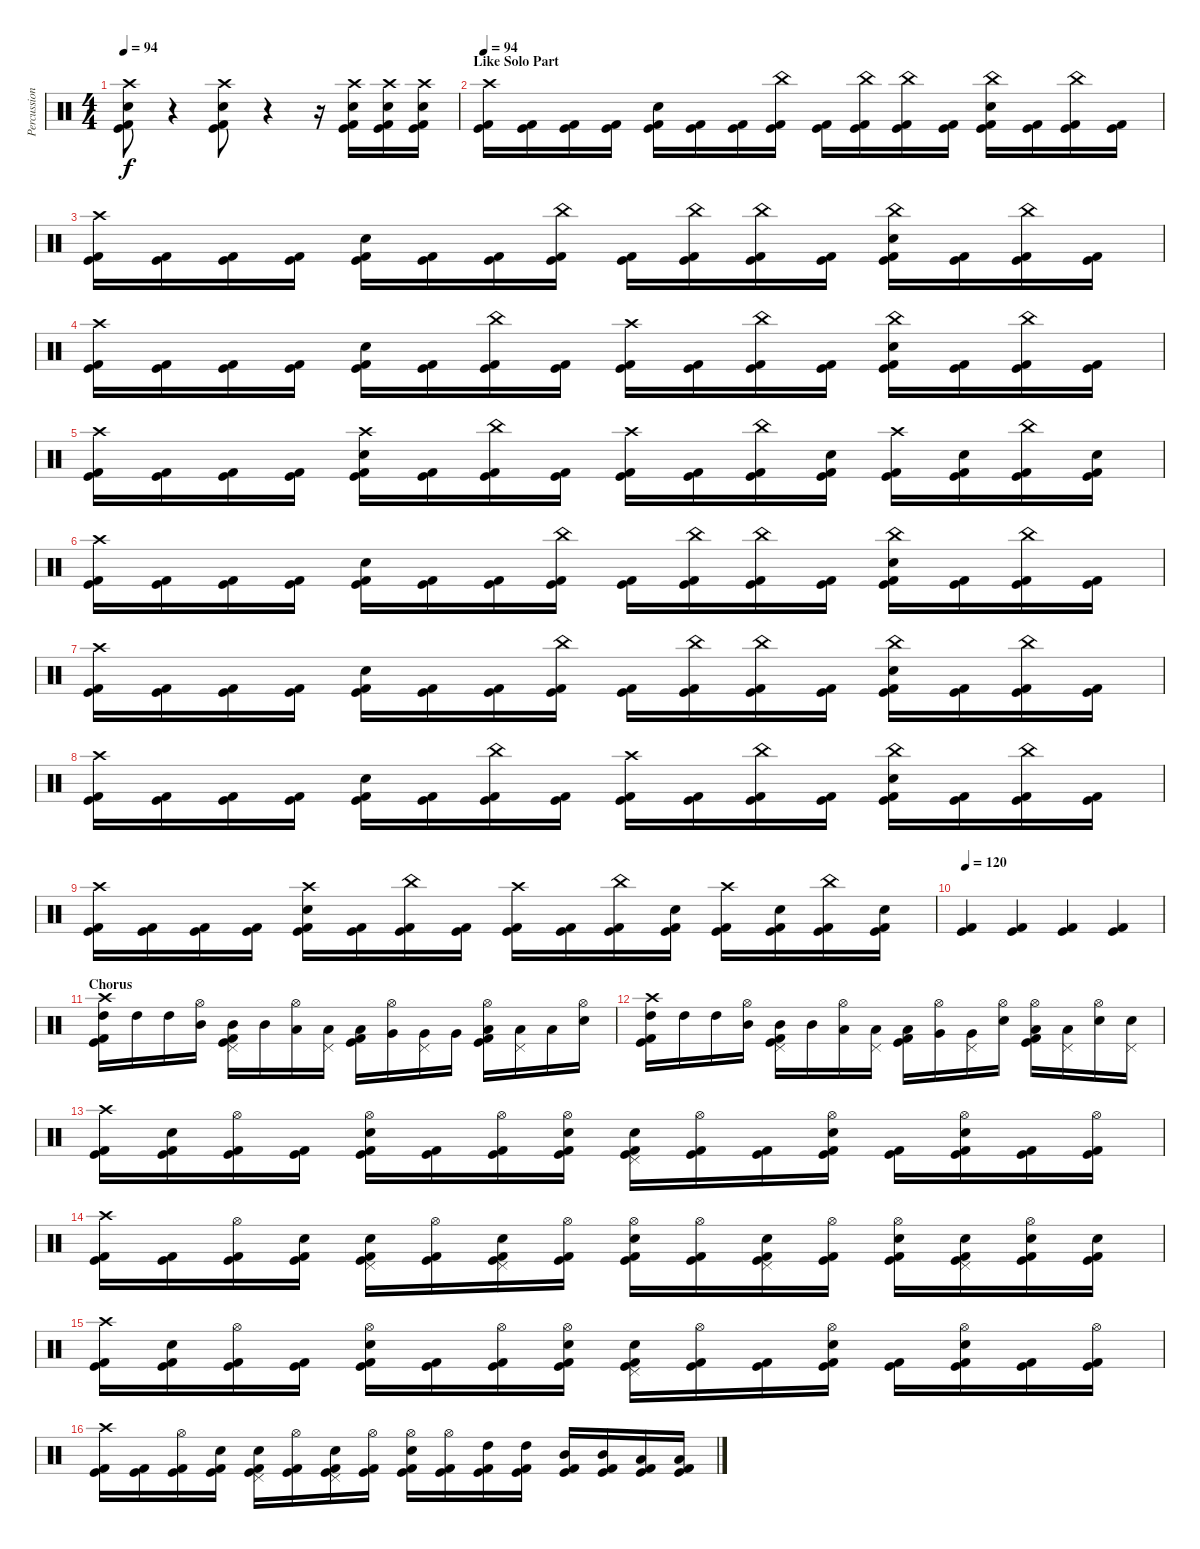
\track ("Percussion" "Percussion") {instrument percussion}
\staff {score}
\articulation defaults
\ts (4 4)
\tempo 94
\clef neutral
\ks c
("Crash high (hit)" "Snare (hit) 2" "Kick (hit) 2" "Kick (hit)").8{dy f} r.4 ("Crash high (hit)" "Snare (hit) 2" "Kick (hit) 2" "Kick (hit)").8 r.4 r.16 ("Crash high (hit)" "Snare (hit) 2" "Kick (hit) 2" "Kick (hit)").16 ("Crash high (hit)" "Snare (hit) 2" "Kick (hit) 2" "Kick (hit)").16 ("Crash high (hit)" "Snare (hit) 2" "Kick (hit) 2" "Kick (hit)").16 |
\section ("" "Like Solo Part")
\tempo 94
("Crash high (hit)" "Kick (hit) 2" "Kick (hit)").16 ("Kick (hit) 2" "Kick (hit)").16 ("Kick (hit) 2" "Kick (hit)").16 ("Kick (hit) 2" "Kick (hit)").16 ("Snare (hit) 2" "Kick (hit) 2" "Kick (hit)").16 ("Kick (hit) 2" "Kick (hit)").16 ("Kick (hit) 2" "Kick (hit)").16 ("China (hit)" "Kick (hit) 2" "Kick (hit)").16 ("Kick (hit) 2" "Kick (hit)").16 ("China (hit)" "Kick (hit) 2" "Kick (hit)").16 ("China (hit)" "Kick (hit) 2" "Kick (hit)").16 ("Kick (hit) 2" "Kick (hit)").16 ("China (hit)" "Snare (hit) 2" "Kick (hit) 2" "Kick (hit)").16 ("Kick (hit) 2" "Kick (hit)").16 ("China (hit)" "Kick (hit) 2" "Kick (hit)").16 ("Kick (hit) 2" "Kick (hit)").16 |
("Crash high (hit)" "Kick (hit) 2" "Kick (hit)").16 ("Kick (hit) 2" "Kick (hit)").16 ("Kick (hit) 2" "Kick (hit)").16 ("Kick (hit) 2" "Kick (hit)").16 ("Snare (hit) 2" "Kick (hit) 2" "Kick (hit)").16 ("Kick (hit) 2" "Kick (hit)").16 ("Kick (hit) 2" "Kick (hit)").16 ("China (hit)" "Kick (hit) 2" "Kick (hit)").16 ("Kick (hit) 2" "Kick (hit)").16 ("China (hit)" "Kick (hit) 2" "Kick (hit)").16 ("China (hit)" "Kick (hit) 2" "Kick (hit)").16 ("Kick (hit) 2" "Kick (hit)").16 ("China (hit)" "Snare (hit) 2" "Kick (hit) 2" "Kick (hit)").16 ("Kick (hit) 2" "Kick (hit)").16 ("China (hit)" "Kick (hit) 2" "Kick (hit)").16 ("Kick (hit) 2" "Kick (hit)").16 |
("Crash high (hit)" "Kick (hit) 2" "Kick (hit)").16 ("Kick (hit) 2" "Kick (hit)").16 ("Kick (hit) 2" "Kick (hit)").16 ("Kick (hit) 2" "Kick (hit)").16 ("Snare (hit) 2" "Kick (hit) 2" "Kick (hit)").16 ("Kick (hit) 2" "Kick (hit)").16 ("China (hit)" "Kick (hit) 2" "Kick (hit)").16 ("Kick (hit) 2" "Kick (hit)").16 ("Crash high (hit)" "Kick (hit) 2" "Kick (hit)").16 ("Kick (hit) 2" "Kick (hit)").16 ("China (hit)" "Kick (hit) 2" "Kick (hit)").16 ("Kick (hit) 2" "Kick (hit)").16 ("China (hit)" "Snare (hit) 2" "Kick (hit) 2" "Kick (hit)").16 ("Kick (hit) 2" "Kick (hit)").16 ("China (hit)" "Kick (hit) 2" "Kick (hit)").16 ("Kick (hit) 2" "Kick (hit)").16 |
("Crash high (hit)" "Kick (hit) 2" "Kick (hit)").16 ("Kick (hit) 2" "Kick (hit)").16 ("Kick (hit) 2" "Kick (hit)").16 ("Kick (hit) 2" "Kick (hit)").16 ("Crash high (hit)" "Snare (hit) 2" "Kick (hit) 2" "Kick (hit)").16 ("Kick (hit) 2" "Kick (hit)").16 ("China (hit)" "Kick (hit) 2" "Kick (hit)").16 ("Kick (hit) 2" "Kick (hit)").16 ("Crash high (hit)" "Kick (hit) 2" "Kick (hit)").16 ("Kick (hit) 2" "Kick (hit)").16 ("China (hit)" "Kick (hit) 2" "Kick (hit)").16 ("Snare (hit) 2" "Kick (hit) 2" "Kick (hit)").16 ("Crash high (hit)" "Kick (hit) 2" "Kick (hit)").16 ("Snare (hit) 2" "Kick (hit) 2" "Kick (hit)").16 ("China (hit)" "Kick (hit) 2" "Kick (hit)").16 ("Snare (hit) 2" "Kick (hit) 2" "Kick (hit)").16 |
("Crash high (hit)" "Kick (hit) 2" "Kick (hit)").16 ("Kick (hit) 2" "Kick (hit)").16 ("Kick (hit) 2" "Kick (hit)").16 ("Kick (hit) 2" "Kick (hit)").16 ("Snare (hit) 2" "Kick (hit) 2" "Kick (hit)").16 ("Kick (hit) 2" "Kick (hit)").16 ("Kick (hit) 2" "Kick (hit)").16 ("China (hit)" "Kick (hit) 2" "Kick (hit)").16 ("Kick (hit) 2" "Kick (hit)").16 ("China (hit)" "Kick (hit) 2" "Kick (hit)").16 ("China (hit)" "Kick (hit) 2" "Kick (hit)").16 ("Kick (hit) 2" "Kick (hit)").16 ("China (hit)" "Snare (hit) 2" "Kick (hit) 2" "Kick (hit)").16 ("Kick (hit) 2" "Kick (hit)").16 ("China (hit)" "Kick (hit) 2" "Kick (hit)").16 ("Kick (hit) 2" "Kick (hit)").16 |
("Crash high (hit)" "Kick (hit) 2" "Kick (hit)").16 ("Kick (hit) 2" "Kick (hit)").16 ("Kick (hit) 2" "Kick (hit)").16 ("Kick (hit) 2" "Kick (hit)").16 ("Snare (hit) 2" "Kick (hit) 2" "Kick (hit)").16 ("Kick (hit) 2" "Kick (hit)").16 ("Kick (hit) 2" "Kick (hit)").16 ("China (hit)" "Kick (hit) 2" "Kick (hit)").16 ("Kick (hit) 2" "Kick (hit)").16 ("China (hit)" "Kick (hit) 2" "Kick (hit)").16 ("China (hit)" "Kick (hit) 2" "Kick (hit)").16 ("Kick (hit) 2" "Kick (hit)").16 ("China (hit)" "Snare (hit) 2" "Kick (hit) 2" "Kick (hit)").16 ("Kick (hit) 2" "Kick (hit)").16 ("China (hit)" "Kick (hit) 2" "Kick (hit)").16 ("Kick (hit) 2" "Kick (hit)").16 |
("Crash high (hit)" "Kick (hit) 2" "Kick (hit)").16 ("Kick (hit) 2" "Kick (hit)").16 ("Kick (hit) 2" "Kick (hit)").16 ("Kick (hit) 2" "Kick (hit)").16 ("Snare (hit) 2" "Kick (hit) 2" "Kick (hit)").16 ("Kick (hit) 2" "Kick (hit)").16 ("China (hit)" "Kick (hit) 2" "Kick (hit)").16 ("Kick (hit) 2" "Kick (hit)").16 ("Crash high (hit)" "Kick (hit) 2" "Kick (hit)").16 ("Kick (hit) 2" "Kick (hit)").16 ("China (hit)" "Kick (hit) 2" "Kick (hit)").16 ("Kick (hit) 2" "Kick (hit)").16 ("China (hit)" "Snare (hit) 2" "Kick (hit) 2" "Kick (hit)").16 ("Kick (hit) 2" "Kick (hit)").16 ("China (hit)" "Kick (hit) 2" "Kick (hit)").16 ("Kick (hit) 2" "Kick (hit)").16 |
("Crash high (hit)" "Kick (hit) 2" "Kick (hit)").16 ("Kick (hit) 2" "Kick (hit)").16 ("Kick (hit) 2" "Kick (hit)").16 ("Kick (hit) 2" "Kick (hit)").16 ("Crash high (hit)" "Snare (hit) 2" "Kick (hit) 2" "Kick (hit)").16 ("Kick (hit) 2" "Kick (hit)").16 ("China (hit)" "Kick (hit) 2" "Kick (hit)").16 ("Kick (hit) 2" "Kick (hit)").16 ("Crash high (hit)" "Kick (hit) 2" "Kick (hit)").16 ("Kick (hit) 2" "Kick (hit)").16 ("China (hit)" "Kick (hit) 2" "Kick (hit)").16 ("Snare (hit) 2" "Kick (hit) 2" "Kick (hit)").16 ("Crash high (hit)" "Kick (hit) 2" "Kick (hit)").16 ("Snare (hit) 2" "Kick (hit) 2" "Kick (hit)").16 ("China (hit)" "Kick (hit) 2" "Kick (hit)").16 ("Snare (hit) 2" "Kick (hit) 2" "Kick (hit)").16 |
\tempo 120
("Kick (hit) 2" "Kick (hit)").4 ("Kick (hit) 2" "Kick (hit)").4 ("Kick (hit) 2" "Kick (hit)").4 ("Kick (hit) 2" "Kick (hit)").4 |
\section ("" "Chorus")
("Crash high (hit)" "High Tom (hit)" "Kick (hit) 2" "Kick (hit)").16 "High Tom (hit)".16 "High Tom (hit)".16 ("Hi-Hat (open)" "Mid Tom (hit)").16 ("Pedal Hi-Hat (hit)" "Mid Tom (hit)" "Kick (hit) 2" "Kick (hit)").16 "Mid Tom (hit)".16 ("Hi-Hat (open)" "Low Tom (hit)").16 ("Pedal Hi-Hat (hit)" "Low Tom (hit)").16 ("Low Tom (hit)" "Kick (hit) 2" "Kick (hit)").16 ("Hi-Hat (open)" "Very Low Tom (hit)").16 ("Pedal Hi-Hat (hit)" "Very Low Tom (hit)").16 "Very Low Tom (hit)".16 ("Hi-Hat (open)" "Low Floor Tom (hit)" "Kick (hit) 2" "Kick (hit)").16 ("Pedal Hi-Hat (hit)" "Low Floor Tom (hit)").16 "Low Floor Tom (hit)".16 ("Hi-Hat (open)" "Electric Snare (hit)").16 |
("Crash high (hit)" "High Tom (hit)" "Kick (hit) 2" "Kick (hit)").16 "High Tom (hit)".16 "High Tom (hit)".16 ("Hi-Hat (open)" "Mid Tom (hit)").16 ("Pedal Hi-Hat (hit)" "Mid Tom (hit)" "Kick (hit) 2" "Kick (hit)").16 "Mid Tom (hit)".16 ("Hi-Hat (open)" "Low Tom (hit)").16 ("Pedal Hi-Hat (hit)" "Low Tom (hit)").16 ("Low Tom (hit)" "Kick (hit) 2" "Kick (hit)").16 ("Hi-Hat (open)" "Very Low Tom (hit)").16 ("Pedal Hi-Hat (hit)" "Very Low Tom (hit)").16 ("Hi-Hat (open)" "Electric Snare (hit)").16 ("Hi-Hat (open)" "Low Floor Tom (hit)" "Kick (hit) 2" "Kick (hit)").16 ("Pedal Hi-Hat (hit)" "Low Floor Tom (hit)").16 ("Hi-Hat (open)" "Electric Snare (hit)").16 ("Pedal Hi-Hat (hit)" "Electric Snare (hit)").16 |
("Crash high (hit)" "Kick (hit) 2" "Kick (hit)").16 ("Snare (hit) 2" "Kick (hit) 2" "Kick (hit)").16 ("Hi-Hat (open)" "Kick (hit) 2" "Kick (hit)").16 ("Kick (hit) 2" "Kick (hit)").16 ("Hi-Hat (open)" "Snare (hit) 2" "Kick (hit) 2" "Kick (hit)").16 ("Kick (hit) 2" "Kick (hit)").16 ("Hi-Hat (open)" "Kick (hit) 2" "Kick (hit)").16 ("Hi-Hat (open)" "Snare (hit) 2" "Kick (hit) 2" "Kick (hit)").16 ("Pedal Hi-Hat (hit)" "Snare (hit) 2" "Kick (hit) 2" "Kick (hit)").16 ("Hi-Hat (open)" "Kick (hit) 2" "Kick (hit)").16 ("Kick (hit) 2" "Kick (hit)").16 ("Hi-Hat (open)" "Snare (hit) 2" "Kick (hit) 2" "Kick (hit)").16 ("Kick (hit) 2" "Kick (hit)").16 ("Hi-Hat (open)" "Snare (hit) 2" "Kick (hit) 2" "Kick (hit)").16 ("Kick (hit) 2" "Kick (hit)").16 ("Hi-Hat (open)" "Kick (hit) 2" "Kick (hit)").16 |
("Crash high (hit)" "Kick (hit) 2" "Kick (hit)").16 ("Kick (hit) 2" "Kick (hit)").16 ("Hi-Hat (open)" "Kick (hit) 2" "Kick (hit)").16 ("Snare (hit) 2" "Kick (hit) 2" "Kick (hit)").16 ("Pedal Hi-Hat (hit)" "Snare (hit) 2" "Kick (hit) 2" "Kick (hit)").16 ("Hi-Hat (open)" "Kick (hit) 2" "Kick (hit)").16 ("Pedal Hi-Hat (hit)" "Snare (hit) 2" "Kick (hit) 2" "Kick (hit)").16 ("Hi-Hat (open)" "Kick (hit) 2" "Kick (hit)").16 ("Hi-Hat (open)" "Snare (hit) 2" "Kick (hit) 2" "Kick (hit)").16 ("Hi-Hat (open)" "Kick (hit) 2" "Kick (hit)").16 ("Pedal Hi-Hat (hit)" "Snare (hit) 2" "Kick (hit) 2" "Kick (hit)").16 ("Hi-Hat (open)" "Kick (hit) 2" "Kick (hit)").16 ("Hi-Hat (open)" "Snare (hit) 2" "Kick (hit) 2" "Kick (hit)").16 ("Pedal Hi-Hat (hit)" "Snare (hit) 2" "Kick (hit) 2" "Kick (hit)").16 ("Hi-Hat (open)" "Snare (hit) 2" "Kick (hit) 2" "Kick (hit)").16 ("Snare (hit) 2" "Kick (hit) 2" "Kick (hit)").16 |
("Crash high (hit)" "Kick (hit) 2" "Kick (hit)").16 ("Snare (hit) 2" "Kick (hit) 2" "Kick (hit)").16 ("Hi-Hat (open)" "Kick (hit) 2" "Kick (hit)").16 ("Kick (hit) 2" "Kick (hit)").16 ("Hi-Hat (open)" "Snare (hit) 2" "Kick (hit) 2" "Kick (hit)").16 ("Kick (hit) 2" "Kick (hit)").16 ("Hi-Hat (open)" "Kick (hit) 2" "Kick (hit)").16 ("Hi-Hat (open)" "Snare (hit) 2" "Kick (hit) 2" "Kick (hit)").16 ("Pedal Hi-Hat (hit)" "Snare (hit) 2" "Kick (hit) 2" "Kick (hit)").16 ("Hi-Hat (open)" "Kick (hit) 2" "Kick (hit)").16 ("Kick (hit) 2" "Kick (hit)").16 ("Hi-Hat (open)" "Snare (hit) 2" "Kick (hit) 2" "Kick (hit)").16 ("Kick (hit) 2" "Kick (hit)").16 ("Hi-Hat (open)" "Snare (hit) 2" "Kick (hit) 2" "Kick (hit)").16 ("Kick (hit) 2" "Kick (hit)").16 ("Hi-Hat (open)" "Kick (hit) 2" "Kick (hit)").16 |
("Crash high (hit)" "Kick (hit) 2" "Kick (hit)").16 ("Kick (hit) 2" "Kick (hit)").16 ("Hi-Hat (open)" "Kick (hit) 2" "Kick (hit)").16 ("Snare (hit) 2" "Kick (hit) 2" "Kick (hit)").16 ("Pedal Hi-Hat (hit)" "Snare (hit) 2" "Kick (hit) 2" "Kick (hit)").16 ("Hi-Hat (open)" "Kick (hit) 2" "Kick (hit)").16 ("Pedal Hi-Hat (hit)" "Snare (hit) 2" "Kick (hit) 2" "Kick (hit)").16 ("Hi-Hat (open)" "Kick (hit) 2" "Kick (hit)").16 ("Hi-Hat (open)" "Snare (hit) 2" "Kick (hit) 2" "Kick (hit)").16 ("Hi-Hat (open)" "Kick (hit) 2" "Kick (hit)").16 ("High Tom (hit)" "Kick (hit) 2" "Kick (hit)").16 ("High Tom (hit)" "Kick (hit) 2" "Kick (hit)").16 ("Mid Tom (hit)" "Kick (hit) 2" "Kick (hit)").16 ("Mid Tom (hit)" "Kick (hit) 2" "Kick (hit)").16 ("Low Tom (hit)" "Kick (hit) 2" "Kick (hit)").16 ("Low Tom (hit)" "Kick (hit) 2" "Kick (hit)").16
